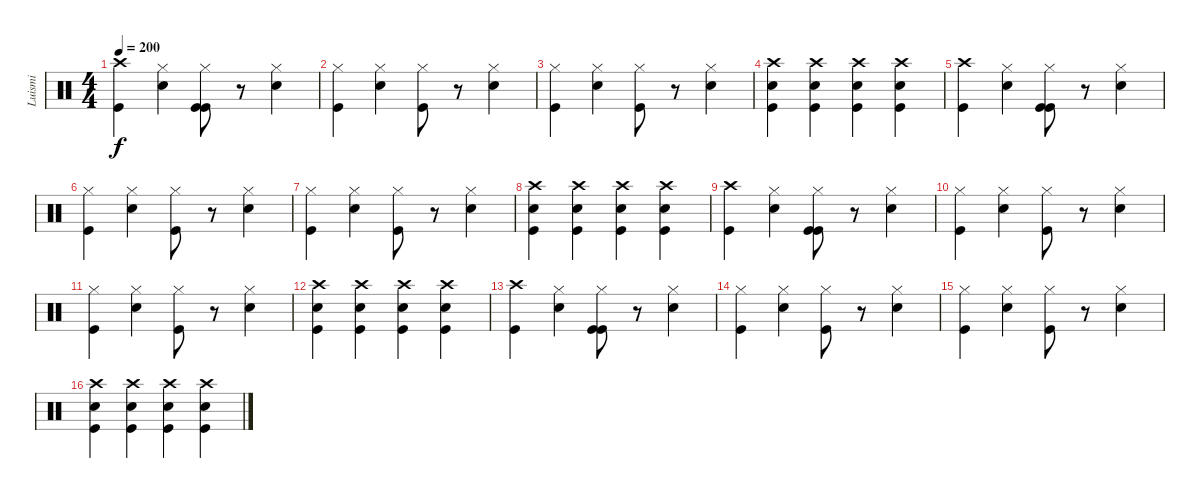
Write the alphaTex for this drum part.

\track ("Luismi" "Luismi") {instrument percussion}
\staff {score}
\articulation defaults
\ts (4 4)
\tempo 200
\clef neutral
\ks c
("Crash high (hit)" "Kick (hit)").4{dy f} ("Snare (hit) 2" "Hi-Hat (closed)").4 ("Kick (hit)" "Kick (hit)" "Hi-Hat (closed)").8 r.8 ("Snare (hit) 2" "Hi-Hat (closed)").4 |
("Kick (hit)" "Hi-Hat (closed)").4 ("Snare (hit) 2" "Hi-Hat (closed)").4 ("Kick (hit)" "Hi-Hat (closed)").8 r.8 ("Snare (hit) 2" "Hi-Hat (closed)").4 |
("Kick (hit)" "Hi-Hat (closed)").4 ("Snare (hit) 2" "Hi-Hat (closed)").4 ("Kick (hit)" "Hi-Hat (closed)").8 r.8 ("Snare (hit) 2" "Hi-Hat (closed)").4 |
("Kick (hit)" "Snare (hit) 2" "Crash high (hit)").4 ("Snare (hit) 2" "Kick (hit)" "Crash high (hit)").4 ("Snare (hit) 2" "Kick (hit)" "Crash high (hit)").4 ("Snare (hit) 2" "Kick (hit)" "Crash high (hit)").4 |
("Crash high (hit)" "Kick (hit)").4 ("Snare (hit) 2" "Hi-Hat (closed)").4 ("Kick (hit)" "Kick (hit)" "Hi-Hat (closed)").8 r.8 ("Snare (hit) 2" "Hi-Hat (closed)").4 |
("Kick (hit)" "Hi-Hat (closed)").4 ("Snare (hit) 2" "Hi-Hat (closed)").4 ("Kick (hit)" "Hi-Hat (closed)").8 r.8 ("Snare (hit) 2" "Hi-Hat (closed)").4 |
("Kick (hit)" "Hi-Hat (closed)").4 ("Snare (hit) 2" "Hi-Hat (closed)").4 ("Kick (hit)" "Hi-Hat (closed)").8 r.8 ("Snare (hit) 2" "Hi-Hat (closed)").4 |
("Kick (hit)" "Snare (hit) 2" "Crash high (hit)").4 ("Snare (hit) 2" "Kick (hit)" "Crash high (hit)").4 ("Snare (hit) 2" "Kick (hit)" "Crash high (hit)").4 ("Snare (hit) 2" "Kick (hit)" "Crash high (hit)").4 |
("Crash high (hit)" "Kick (hit)").4 ("Snare (hit) 2" "Hi-Hat (closed)").4 ("Kick (hit)" "Kick (hit)" "Hi-Hat (closed)").8 r.8 ("Snare (hit) 2" "Hi-Hat (closed)").4 |
("Kick (hit)" "Hi-Hat (closed)").4 ("Snare (hit) 2" "Hi-Hat (closed)").4 ("Kick (hit)" "Hi-Hat (closed)").8 r.8 ("Snare (hit) 2" "Hi-Hat (closed)").4 |
("Kick (hit)" "Hi-Hat (closed)").4 ("Snare (hit) 2" "Hi-Hat (closed)").4 ("Kick (hit)" "Hi-Hat (closed)").8 r.8 ("Snare (hit) 2" "Hi-Hat (closed)").4 |
("Kick (hit)" "Snare (hit) 2" "Crash high (hit)").4 ("Snare (hit) 2" "Kick (hit)" "Crash high (hit)").4 ("Snare (hit) 2" "Kick (hit)" "Crash high (hit)").4 ("Snare (hit) 2" "Kick (hit)" "Crash high (hit)").4 |
("Crash high (hit)" "Kick (hit)").4 ("Snare (hit) 2" "Hi-Hat (closed)").4 ("Kick (hit)" "Kick (hit)" "Hi-Hat (closed)").8 r.8 ("Snare (hit) 2" "Hi-Hat (closed)").4 |
("Kick (hit)" "Hi-Hat (closed)").4 ("Snare (hit) 2" "Hi-Hat (closed)").4 ("Kick (hit)" "Hi-Hat (closed)").8 r.8 ("Snare (hit) 2" "Hi-Hat (closed)").4 |
("Kick (hit)" "Hi-Hat (closed)").4 ("Snare (hit) 2" "Hi-Hat (closed)").4 ("Kick (hit)" "Hi-Hat (closed)").8 r.8 ("Snare (hit) 2" "Hi-Hat (closed)").4 |
("Kick (hit)" "Snare (hit) 2" "Crash high (hit)").4 ("Snare (hit) 2" "Kick (hit)" "Crash high (hit)").4 ("Snare (hit) 2" "Kick (hit)" "Crash high (hit)").4 ("Snare (hit) 2" "Kick (hit)" "Crash high (hit)").4
